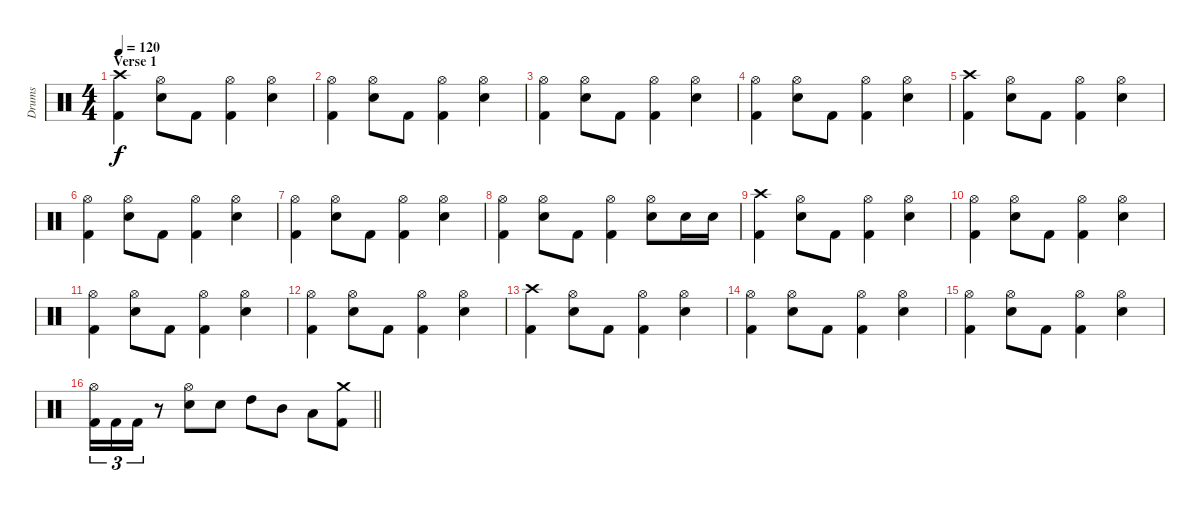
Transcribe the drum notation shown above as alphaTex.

\track ("Drums" "Drums") {instrument percussion}
\staff {score}
\articulation defaults
\ts (4 4)
\section ("" "Verse 1")
\tempo 120
\clef neutral
\ks c
("Crash high (hit)" "Kick (hit) 2").4{dy f} ("Hi-Hat (open)" "Snare (hit) 2").8 "Kick (hit) 2".8 ("Hi-Hat (open)" "Kick (hit) 2").4 ("Hi-Hat (open)" "Snare (hit) 2").4 |
("Hi-Hat (open)" "Kick (hit) 2").4 ("Hi-Hat (open)" "Snare (hit) 2").8 "Kick (hit) 2".8 ("Hi-Hat (open)" "Kick (hit) 2").4 ("Hi-Hat (open)" "Snare (hit) 2").4 |
("Hi-Hat (open)" "Kick (hit) 2").4 ("Hi-Hat (open)" "Snare (hit) 2").8 "Kick (hit) 2".8 ("Hi-Hat (open)" "Kick (hit) 2").4 ("Hi-Hat (open)" "Snare (hit) 2").4 |
("Hi-Hat (open)" "Kick (hit) 2").4 ("Hi-Hat (open)" "Snare (hit) 2").8 "Kick (hit) 2".8 ("Hi-Hat (open)" "Kick (hit) 2").4 ("Hi-Hat (open)" "Snare (hit) 2").4 |
("Crash high (hit)" "Kick (hit) 2").4 ("Hi-Hat (open)" "Snare (hit) 2").8 "Kick (hit) 2".8 ("Hi-Hat (open)" "Kick (hit) 2").4 ("Hi-Hat (open)" "Snare (hit) 2").4 |
("Hi-Hat (open)" "Kick (hit) 2").4 ("Hi-Hat (open)" "Snare (hit) 2").8 "Kick (hit) 2".8 ("Hi-Hat (open)" "Kick (hit) 2").4 ("Hi-Hat (open)" "Snare (hit) 2").4 |
("Hi-Hat (open)" "Kick (hit) 2").4 ("Hi-Hat (open)" "Snare (hit) 2").8 "Kick (hit) 2".8 ("Hi-Hat (open)" "Kick (hit) 2").4 ("Hi-Hat (open)" "Snare (hit) 2").4 |
("Hi-Hat (open)" "Kick (hit) 2").4 ("Hi-Hat (open)" "Snare (hit) 2").8 "Kick (hit) 2".8 ("Hi-Hat (open)" "Kick (hit) 2").4 ("Hi-Hat (open)" "Snare (hit) 2").8 "Snare (hit) 2".16 "Snare (hit) 2".16 |
("Crash high (hit)" "Kick (hit) 2").4 ("Hi-Hat (open)" "Snare (hit) 2").8 "Kick (hit) 2".8 ("Hi-Hat (open)" "Kick (hit) 2").4 ("Hi-Hat (open)" "Snare (hit) 2").4 |
("Hi-Hat (open)" "Kick (hit) 2").4 ("Hi-Hat (open)" "Snare (hit) 2").8 "Kick (hit) 2".8 ("Hi-Hat (open)" "Kick (hit) 2").4 ("Hi-Hat (open)" "Snare (hit) 2").4 |
("Hi-Hat (open)" "Kick (hit) 2").4 ("Hi-Hat (open)" "Snare (hit) 2").8 "Kick (hit) 2".8 ("Hi-Hat (open)" "Kick (hit) 2").4 ("Hi-Hat (open)" "Snare (hit) 2").4 |
("Hi-Hat (open)" "Kick (hit) 2").4 ("Hi-Hat (open)" "Snare (hit) 2").8 "Kick (hit) 2".8 ("Hi-Hat (open)" "Kick (hit) 2").4 ("Hi-Hat (open)" "Snare (hit) 2").4 |
("Crash high (hit)" "Kick (hit) 2").4 ("Hi-Hat (open)" "Snare (hit) 2").8 "Kick (hit) 2".8 ("Hi-Hat (open)" "Kick (hit) 2").4 ("Hi-Hat (open)" "Snare (hit) 2").4 |
("Hi-Hat (open)" "Kick (hit) 2").4 ("Hi-Hat (open)" "Snare (hit) 2").8 "Kick (hit) 2".8 ("Hi-Hat (open)" "Kick (hit) 2").4 ("Hi-Hat (open)" "Snare (hit) 2").4 |
("Hi-Hat (open)" "Kick (hit) 2").4 ("Hi-Hat (open)" "Snare (hit) 2").8 "Kick (hit) 2".8 ("Hi-Hat (open)" "Kick (hit) 2").4 ("Hi-Hat (open)" "Snare (hit) 2").4 |
\barLineRight lightlight
("Hi-Hat (open)" "Kick (hit) 2").16{tu (3 2)} "Kick (hit) 2".16{tu (3 2)} "Kick (hit) 2".16{tu (3 2)} r.8 ("Hi-Hat (open)" "Snare (hit) 2").8 "Snare (hit) 2".8 "High Tom (hit)".8 "Mid Tom (hit)".8 "Low Tom (hit)".8 ("Crash medium (hit)" "Kick (hit) 2").8
